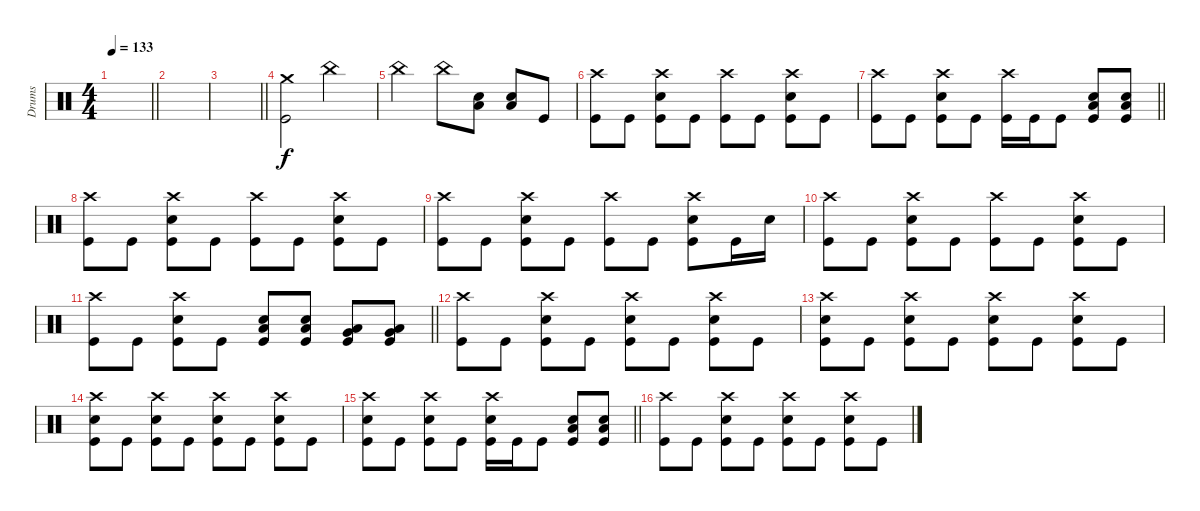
\track ("Drums" "Drums") {instrument percussion}
\staff
\articulation defaults
\ts (4 4)
\tempo 133
\clef neutral
\barLineRight lightlight
\ks c
|
|
\barLineRight lightlight
|
\section ("" "")
("Crash medium (hit)" "Kick (hit)").2 "China (hit)".2 |
"China (hit)".2 "China (hit)".8 ("Low Floor Tom (hit)" "Electric Snare (hit)").8 ("Low Floor Tom (hit)" "Electric Snare (hit)").8 "Kick (hit)".8 |
("Crash high (hit)" "Kick (hit)").8 "Kick (hit)".8 ("Crash high (hit)" "Electric Snare (hit)" "Kick (hit)").8 "Kick (hit)".8 ("Crash high (hit)" "Kick (hit)").8 "Kick (hit)".8 ("Crash high (hit)" "Electric Snare (hit)" "Kick (hit)").8 "Kick (hit)".8 |
\barLineRight lightlight
("Crash high (hit)" "Kick (hit)").8 "Kick (hit)".8 ("Crash high (hit)" "Electric Snare (hit)" "Kick (hit)").8 "Kick (hit)".8 ("Crash high (hit)" "Kick (hit)").16 "Kick (hit)".16 "Kick (hit)".8 ("Low Floor Tom (hit)" "Electric Snare (hit)" "Kick (hit)").8 ("Low Floor Tom (hit)" "Electric Snare (hit)" "Kick (hit)").8 |
("Crash high (hit)" "Kick (hit)").8 "Kick (hit)".8 ("Crash high (hit)" "Electric Snare (hit)" "Kick (hit)").8 "Kick (hit)".8 ("Crash high (hit)" "Kick (hit)").8 "Kick (hit)".8 ("Crash high (hit)" "Electric Snare (hit)" "Kick (hit)").8 "Kick (hit)".8 |
("Crash high (hit)" "Kick (hit)").8 "Kick (hit)".8 ("Crash high (hit)" "Electric Snare (hit)" "Kick (hit)").8 "Kick (hit)".8 ("Crash high (hit)" "Kick (hit)").8 "Kick (hit)".8 ("Crash high (hit)" "Electric Snare (hit)" "Kick (hit)").8 "Kick (hit)".16 "Electric Snare (hit)".16 |
("Crash high (hit)" "Kick (hit)").8 "Kick (hit)".8 ("Crash high (hit)" "Electric Snare (hit)" "Kick (hit)").8 "Kick (hit)".8 ("Crash high (hit)" "Kick (hit)").8 "Kick (hit)".8 ("Crash high (hit)" "Electric Snare (hit)" "Kick (hit)").8 "Kick (hit)".8 |
\barLineRight lightlight
("Crash high (hit)" "Kick (hit)").8 "Kick (hit)".8 ("Crash high (hit)" "Electric Snare (hit)" "Kick (hit)").8 "Kick (hit)".8 ("Low Floor Tom (hit)" "Electric Snare (hit)" "Kick (hit)").8 ("Low Floor Tom (hit)" "Electric Snare (hit)" "Kick (hit)").8 ("Very Low Tom (hit)" "Low Floor Tom (hit)" "Kick (hit)").8 ("Very Low Tom (hit)" "Low Floor Tom (hit)" "Kick (hit)").8 |
("Crash high (hit)" "Kick (hit)").8 "Kick (hit)".8 ("Crash high (hit)" "Electric Snare (hit)" "Kick (hit)").8 "Kick (hit)".8 ("Crash high (hit)" "Electric Snare (hit)" "Kick (hit)").8 "Kick (hit)".8 ("Crash high (hit)" "Electric Snare (hit)" "Kick (hit)").8 "Kick (hit)".8 |
("Crash high (hit)" "Electric Snare (hit)" "Kick (hit)").8 "Kick (hit)".8 ("Crash high (hit)" "Electric Snare (hit)" "Kick (hit)").8 "Kick (hit)".8 ("Crash high (hit)" "Electric Snare (hit)" "Kick (hit)").8 "Kick (hit)".8 ("Crash high (hit)" "Electric Snare (hit)" "Kick (hit)").8 "Kick (hit)".8 |
("Crash high (hit)" "Electric Snare (hit)" "Kick (hit)").8 "Kick (hit)".8 ("Crash high (hit)" "Electric Snare (hit)" "Kick (hit)").8 "Kick (hit)".8 ("Crash high (hit)" "Electric Snare (hit)" "Kick (hit)").8 "Kick (hit)".8 ("Crash high (hit)" "Electric Snare (hit)" "Kick (hit)").8 "Kick (hit)".8 |
\barLineRight lightlight
("Crash high (hit)" "Electric Snare (hit)" "Kick (hit)").8 "Kick (hit)".8 ("Crash high (hit)" "Electric Snare (hit)" "Kick (hit)").8 "Kick (hit)".8 ("Crash high (hit)" "Electric Snare (hit)" "Kick (hit)").16 "Kick (hit)".16 "Kick (hit)".8 ("Low Floor Tom (hit)" "Electric Snare (hit)" "Kick (hit)").8 ("Low Floor Tom (hit)" "Electric Snare (hit)" "Kick (hit)").8 |
("Crash high (hit)" "Kick (hit)").8 "Kick (hit)".8 ("Crash high (hit)" "Electric Snare (hit)" "Kick (hit)").8 "Kick (hit)".8 ("Crash high (hit)" "Electric Snare (hit)" "Kick (hit)").8 "Kick (hit)".8 ("Crash high (hit)" "Electric Snare (hit)" "Kick (hit)").8 "Kick (hit)".8
